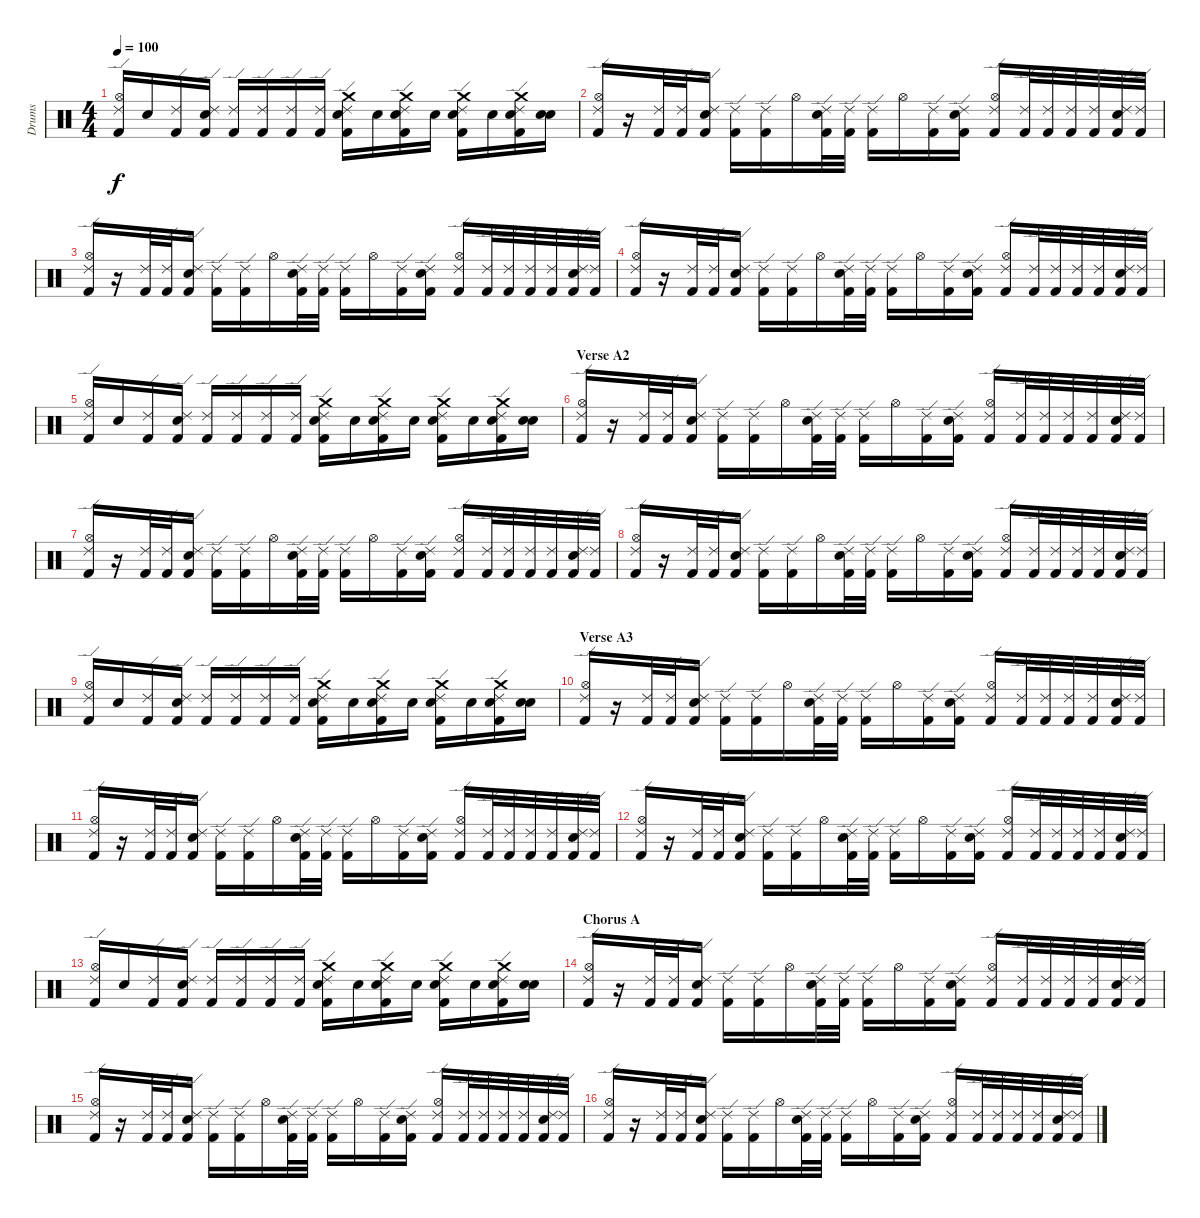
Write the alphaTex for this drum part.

\track ("Drums" "Drums") {instrument percussion}
\staff {score}
\articulation defaults
\ts (4 4)
\tempo 100
\clef neutral
\ks c
("Kick (hit) 2" "Hi-Hat (open)" "Ride (edge) 2").16{dy f} "Snare (hit)".16 ("Kick (hit) 2" "Ride (edge) 2").16 ("Kick (hit) 2" "Electric Snare (hit)" "Ride (edge) 2").16 ("Kick (hit) 2" "Ride (edge) 2").16 ("Kick (hit) 2" "Ride (edge) 2").16 ("Kick (hit) 2" "Ride (edge) 2").16 ("Kick (hit) 2" "Ride (edge) 2").16 ("Kick (hit) 2" "Electric Snare (hit)" "Crash medium (hit)" "Ride (edge) 2").16 "Snare (hit)".16 ("Kick (hit) 2" "Electric Snare (hit)" "Crash medium (hit)" "Ride (edge) 2").16 "Snare (hit)".16 ("Kick (hit) 2" "Electric Snare (hit)" "Crash medium (hit)" "Ride (edge) 2").16 "Snare (hit)".16 ("Kick (hit) 2" "Electric Snare (hit)" "Crash medium (hit)" "Ride (edge) 2").16 ("Snare (hit)" "Snare (hit)").16 |
("Kick (hit) 2" "Hi-Hat (open)" "Ride (edge) 2").16 r.16 ("Kick (hit) 2" "Ride (edge) 2").32 ("Kick (hit) 2" "Ride (edge) 2").32 ("Kick (hit) 2" "Electric Snare (hit)" "Ride (edge) 2").16 ("Kick (hit) 2" "Ride (edge) 2").16 ("Kick (hit) 2" "Ride (edge) 2").16 "Hi-Hat (open)".16 ("Kick (hit) 2" "Electric Snare (hit)" "Ride (edge) 2").32 ("Kick (hit) 2" "Ride (edge) 2").32 ("Kick (hit) 2" "Ride (edge) 2").16 "Hi-Hat (open)".16 ("Kick (hit) 2" "Ride (edge) 2").16 ("Kick (hit) 2" "Electric Snare (hit)" "Ride (edge) 2").16 ("Kick (hit) 2" "Hi-Hat (open)" "Ride (edge) 2").16 ("Kick (hit) 2" "Ride (edge) 2").32 ("Kick (hit) 2" "Ride (edge) 2").32 ("Kick (hit) 2" "Ride (edge) 2").32 ("Kick (hit) 2" "Ride (edge) 2").32 ("Kick (hit) 2" "Electric Snare (hit)" "Ride (edge) 2").32 ("Kick (hit) 2" "Ride (edge) 2").32 |
("Kick (hit) 2" "Hi-Hat (open)" "Ride (edge) 2").16 r.16 ("Kick (hit) 2" "Ride (edge) 2").32 ("Kick (hit) 2" "Ride (edge) 2").32 ("Kick (hit) 2" "Electric Snare (hit)" "Ride (edge) 2").16 ("Kick (hit) 2" "Ride (edge) 2").16 ("Kick (hit) 2" "Ride (edge) 2").16 "Hi-Hat (open)".16 ("Kick (hit) 2" "Electric Snare (hit)" "Ride (edge) 2").32 ("Kick (hit) 2" "Ride (edge) 2").32 ("Kick (hit) 2" "Ride (edge) 2").16 "Hi-Hat (open)".16 ("Kick (hit) 2" "Ride (edge) 2").16 ("Kick (hit) 2" "Electric Snare (hit)" "Ride (edge) 2").16 ("Kick (hit) 2" "Hi-Hat (open)" "Ride (edge) 2").16 ("Kick (hit) 2" "Ride (edge) 2").32 ("Kick (hit) 2" "Ride (edge) 2").32 ("Kick (hit) 2" "Ride (edge) 2").32 ("Kick (hit) 2" "Ride (edge) 2").32 ("Kick (hit) 2" "Electric Snare (hit)" "Ride (edge) 2").32 ("Kick (hit) 2" "Ride (edge) 2").32 |
("Kick (hit) 2" "Hi-Hat (open)" "Ride (edge) 2").16 r.16 ("Kick (hit) 2" "Ride (edge) 2").32 ("Kick (hit) 2" "Ride (edge) 2").32 ("Kick (hit) 2" "Electric Snare (hit)" "Ride (edge) 2").16 ("Kick (hit) 2" "Ride (edge) 2").16 ("Kick (hit) 2" "Ride (edge) 2").16 "Hi-Hat (open)".16 ("Kick (hit) 2" "Electric Snare (hit)" "Ride (edge) 2").32 ("Kick (hit) 2" "Ride (edge) 2").32 ("Kick (hit) 2" "Ride (edge) 2").16 "Hi-Hat (open)".16 ("Kick (hit) 2" "Ride (edge) 2").16 ("Kick (hit) 2" "Electric Snare (hit)" "Ride (edge) 2").16 ("Kick (hit) 2" "Hi-Hat (open)" "Ride (edge) 2").16 ("Kick (hit) 2" "Ride (edge) 2").32 ("Kick (hit) 2" "Ride (edge) 2").32 ("Kick (hit) 2" "Ride (edge) 2").32 ("Kick (hit) 2" "Ride (edge) 2").32 ("Kick (hit) 2" "Electric Snare (hit)" "Ride (edge) 2").32 ("Kick (hit) 2" "Ride (edge) 2").32 |
("Kick (hit) 2" "Hi-Hat (open)" "Ride (edge) 2").16 "Snare (hit)".16 ("Kick (hit) 2" "Ride (edge) 2").16 ("Kick (hit) 2" "Electric Snare (hit)" "Ride (edge) 2").16 ("Kick (hit) 2" "Ride (edge) 2").16 ("Kick (hit) 2" "Ride (edge) 2").16 ("Kick (hit) 2" "Ride (edge) 2").16 ("Kick (hit) 2" "Ride (edge) 2").16 ("Kick (hit) 2" "Electric Snare (hit)" "Crash medium (hit)" "Ride (edge) 2").16 "Snare (hit)".16 ("Kick (hit) 2" "Electric Snare (hit)" "Crash medium (hit)" "Ride (edge) 2").16 "Snare (hit)".16 ("Kick (hit) 2" "Electric Snare (hit)" "Crash medium (hit)" "Ride (edge) 2").16 "Snare (hit)".16 ("Kick (hit) 2" "Electric Snare (hit)" "Crash medium (hit)" "Ride (edge) 2").16 ("Snare (hit)" "Snare (hit)").16 |
\section ("" "Verse A2")
("Kick (hit) 2" "Hi-Hat (open)" "Ride (edge) 2").16 r.16 ("Kick (hit) 2" "Ride (edge) 2").32 ("Kick (hit) 2" "Ride (edge) 2").32 ("Kick (hit) 2" "Electric Snare (hit)" "Ride (edge) 2").16 ("Kick (hit) 2" "Ride (edge) 2").16 ("Kick (hit) 2" "Ride (edge) 2").16 "Hi-Hat (open)".16 ("Kick (hit) 2" "Electric Snare (hit)" "Ride (edge) 2").32 ("Kick (hit) 2" "Ride (edge) 2").32 ("Kick (hit) 2" "Ride (edge) 2").16 "Hi-Hat (open)".16 ("Kick (hit) 2" "Ride (edge) 2").16 ("Kick (hit) 2" "Electric Snare (hit)" "Ride (edge) 2").16 ("Kick (hit) 2" "Hi-Hat (open)" "Ride (edge) 2").16 ("Kick (hit) 2" "Ride (edge) 2").32 ("Kick (hit) 2" "Ride (edge) 2").32 ("Kick (hit) 2" "Ride (edge) 2").32 ("Kick (hit) 2" "Ride (edge) 2").32 ("Kick (hit) 2" "Electric Snare (hit)" "Ride (edge) 2").32 ("Kick (hit) 2" "Ride (edge) 2").32 |
("Kick (hit) 2" "Hi-Hat (open)" "Ride (edge) 2").16 r.16 ("Kick (hit) 2" "Ride (edge) 2").32 ("Kick (hit) 2" "Ride (edge) 2").32 ("Kick (hit) 2" "Electric Snare (hit)" "Ride (edge) 2").16 ("Kick (hit) 2" "Ride (edge) 2").16 ("Kick (hit) 2" "Ride (edge) 2").16 "Hi-Hat (open)".16 ("Kick (hit) 2" "Electric Snare (hit)" "Ride (edge) 2").32 ("Kick (hit) 2" "Ride (edge) 2").32 ("Kick (hit) 2" "Ride (edge) 2").16 "Hi-Hat (open)".16 ("Kick (hit) 2" "Ride (edge) 2").16 ("Kick (hit) 2" "Electric Snare (hit)" "Ride (edge) 2").16 ("Kick (hit) 2" "Hi-Hat (open)" "Ride (edge) 2").16 ("Kick (hit) 2" "Ride (edge) 2").32 ("Kick (hit) 2" "Ride (edge) 2").32 ("Kick (hit) 2" "Ride (edge) 2").32 ("Kick (hit) 2" "Ride (edge) 2").32 ("Kick (hit) 2" "Electric Snare (hit)" "Ride (edge) 2").32 ("Kick (hit) 2" "Ride (edge) 2").32 |
("Kick (hit) 2" "Hi-Hat (open)" "Ride (edge) 2").16 r.16 ("Kick (hit) 2" "Ride (edge) 2").32 ("Kick (hit) 2" "Ride (edge) 2").32 ("Kick (hit) 2" "Electric Snare (hit)" "Ride (edge) 2").16 ("Kick (hit) 2" "Ride (edge) 2").16 ("Kick (hit) 2" "Ride (edge) 2").16 "Hi-Hat (open)".16 ("Kick (hit) 2" "Electric Snare (hit)" "Ride (edge) 2").32 ("Kick (hit) 2" "Ride (edge) 2").32 ("Kick (hit) 2" "Ride (edge) 2").16 "Hi-Hat (open)".16 ("Kick (hit) 2" "Ride (edge) 2").16 ("Kick (hit) 2" "Electric Snare (hit)" "Ride (edge) 2").16 ("Kick (hit) 2" "Hi-Hat (open)" "Ride (edge) 2").16 ("Kick (hit) 2" "Ride (edge) 2").32 ("Kick (hit) 2" "Ride (edge) 2").32 ("Kick (hit) 2" "Ride (edge) 2").32 ("Kick (hit) 2" "Ride (edge) 2").32 ("Kick (hit) 2" "Electric Snare (hit)" "Ride (edge) 2").32 ("Kick (hit) 2" "Ride (edge) 2").32 |
("Kick (hit) 2" "Hi-Hat (open)" "Ride (edge) 2").16 "Snare (hit)".16 ("Kick (hit) 2" "Ride (edge) 2").16 ("Kick (hit) 2" "Electric Snare (hit)" "Ride (edge) 2").16 ("Kick (hit) 2" "Ride (edge) 2").16 ("Kick (hit) 2" "Ride (edge) 2").16 ("Kick (hit) 2" "Ride (edge) 2").16 ("Kick (hit) 2" "Ride (edge) 2").16 ("Kick (hit) 2" "Electric Snare (hit)" "Crash medium (hit)" "Ride (edge) 2").16 "Snare (hit)".16 ("Kick (hit) 2" "Electric Snare (hit)" "Crash medium (hit)" "Ride (edge) 2").16 "Snare (hit)".16 ("Kick (hit) 2" "Electric Snare (hit)" "Crash medium (hit)" "Ride (edge) 2").16 "Snare (hit)".16 ("Kick (hit) 2" "Electric Snare (hit)" "Crash medium (hit)" "Ride (edge) 2").16 ("Snare (hit)" "Snare (hit)").16 |
\section ("" "Verse A3")
("Kick (hit) 2" "Hi-Hat (open)" "Ride (edge) 2").16 r.16 ("Kick (hit) 2" "Ride (edge) 2").32 ("Kick (hit) 2" "Ride (edge) 2").32 ("Kick (hit) 2" "Electric Snare (hit)" "Ride (edge) 2").16 ("Kick (hit) 2" "Ride (edge) 2").16 ("Kick (hit) 2" "Ride (edge) 2").16 "Hi-Hat (open)".16 ("Kick (hit) 2" "Electric Snare (hit)" "Ride (edge) 2").32 ("Kick (hit) 2" "Ride (edge) 2").32 ("Kick (hit) 2" "Ride (edge) 2").16 "Hi-Hat (open)".16 ("Kick (hit) 2" "Ride (edge) 2").16 ("Kick (hit) 2" "Electric Snare (hit)" "Ride (edge) 2").16 ("Kick (hit) 2" "Hi-Hat (open)" "Ride (edge) 2").16 ("Kick (hit) 2" "Ride (edge) 2").32 ("Kick (hit) 2" "Ride (edge) 2").32 ("Kick (hit) 2" "Ride (edge) 2").32 ("Kick (hit) 2" "Ride (edge) 2").32 ("Kick (hit) 2" "Electric Snare (hit)" "Ride (edge) 2").32 ("Kick (hit) 2" "Ride (edge) 2").32 |
("Kick (hit) 2" "Hi-Hat (open)" "Ride (edge) 2").16 r.16 ("Kick (hit) 2" "Ride (edge) 2").32 ("Kick (hit) 2" "Ride (edge) 2").32 ("Kick (hit) 2" "Electric Snare (hit)" "Ride (edge) 2").16 ("Kick (hit) 2" "Ride (edge) 2").16 ("Kick (hit) 2" "Ride (edge) 2").16 "Hi-Hat (open)".16 ("Kick (hit) 2" "Electric Snare (hit)" "Ride (edge) 2").32 ("Kick (hit) 2" "Ride (edge) 2").32 ("Kick (hit) 2" "Ride (edge) 2").16 "Hi-Hat (open)".16 ("Kick (hit) 2" "Ride (edge) 2").16 ("Kick (hit) 2" "Electric Snare (hit)" "Ride (edge) 2").16 ("Kick (hit) 2" "Hi-Hat (open)" "Ride (edge) 2").16 ("Kick (hit) 2" "Ride (edge) 2").32 ("Kick (hit) 2" "Ride (edge) 2").32 ("Kick (hit) 2" "Ride (edge) 2").32 ("Kick (hit) 2" "Ride (edge) 2").32 ("Kick (hit) 2" "Electric Snare (hit)" "Ride (edge) 2").32 ("Kick (hit) 2" "Ride (edge) 2").32 |
("Kick (hit) 2" "Hi-Hat (open)" "Ride (edge) 2").16 r.16 ("Kick (hit) 2" "Ride (edge) 2").32 ("Kick (hit) 2" "Ride (edge) 2").32 ("Kick (hit) 2" "Electric Snare (hit)" "Ride (edge) 2").16 ("Kick (hit) 2" "Ride (edge) 2").16 ("Kick (hit) 2" "Ride (edge) 2").16 "Hi-Hat (open)".16 ("Kick (hit) 2" "Electric Snare (hit)" "Ride (edge) 2").32 ("Kick (hit) 2" "Ride (edge) 2").32 ("Kick (hit) 2" "Ride (edge) 2").16 "Hi-Hat (open)".16 ("Kick (hit) 2" "Ride (edge) 2").16 ("Kick (hit) 2" "Electric Snare (hit)" "Ride (edge) 2").16 ("Kick (hit) 2" "Hi-Hat (open)" "Ride (edge) 2").16 ("Kick (hit) 2" "Ride (edge) 2").32 ("Kick (hit) 2" "Ride (edge) 2").32 ("Kick (hit) 2" "Ride (edge) 2").32 ("Kick (hit) 2" "Ride (edge) 2").32 ("Kick (hit) 2" "Electric Snare (hit)" "Ride (edge) 2").32 ("Kick (hit) 2" "Ride (edge) 2").32 |
("Kick (hit) 2" "Hi-Hat (open)" "Ride (edge) 2").16 "Snare (hit)".16 ("Kick (hit) 2" "Ride (edge) 2").16 ("Kick (hit) 2" "Electric Snare (hit)" "Ride (edge) 2").16 ("Kick (hit) 2" "Ride (edge) 2").16 ("Kick (hit) 2" "Ride (edge) 2").16 ("Kick (hit) 2" "Ride (edge) 2").16 ("Kick (hit) 2" "Ride (edge) 2").16 ("Kick (hit) 2" "Electric Snare (hit)" "Crash medium (hit)" "Ride (edge) 2").16 "Snare (hit)".16 ("Kick (hit) 2" "Electric Snare (hit)" "Crash medium (hit)" "Ride (edge) 2").16 "Snare (hit)".16 ("Kick (hit) 2" "Electric Snare (hit)" "Crash medium (hit)" "Ride (edge) 2").16 "Snare (hit)".16 ("Kick (hit) 2" "Electric Snare (hit)" "Crash medium (hit)" "Ride (edge) 2").16 ("Snare (hit)" "Snare (hit)").16 |
\section ("" "Chorus A")
("Kick (hit) 2" "Hi-Hat (open)" "Ride (edge) 2").16 r.16 ("Kick (hit) 2" "Ride (edge) 2").32 ("Kick (hit) 2" "Ride (edge) 2").32 ("Kick (hit) 2" "Electric Snare (hit)" "Ride (edge) 2").16 ("Kick (hit) 2" "Ride (edge) 2").16 ("Kick (hit) 2" "Ride (edge) 2").16 "Hi-Hat (open)".16 ("Kick (hit) 2" "Electric Snare (hit)" "Ride (edge) 2").32 ("Kick (hit) 2" "Ride (edge) 2").32 ("Kick (hit) 2" "Ride (edge) 2").16 "Hi-Hat (open)".16 ("Kick (hit) 2" "Ride (edge) 2").16 ("Kick (hit) 2" "Electric Snare (hit)" "Ride (edge) 2").16 ("Kick (hit) 2" "Hi-Hat (open)" "Ride (edge) 2").16 ("Kick (hit) 2" "Ride (edge) 2").32 ("Kick (hit) 2" "Ride (edge) 2").32 ("Kick (hit) 2" "Ride (edge) 2").32 ("Kick (hit) 2" "Ride (edge) 2").32 ("Kick (hit) 2" "Electric Snare (hit)" "Ride (edge) 2").32 ("Kick (hit) 2" "Ride (edge) 2").32 |
("Kick (hit) 2" "Hi-Hat (open)" "Ride (edge) 2").16 r.16 ("Kick (hit) 2" "Ride (edge) 2").32 ("Kick (hit) 2" "Ride (edge) 2").32 ("Kick (hit) 2" "Electric Snare (hit)" "Ride (edge) 2").16 ("Kick (hit) 2" "Ride (edge) 2").16 ("Kick (hit) 2" "Ride (edge) 2").16 "Hi-Hat (open)".16 ("Kick (hit) 2" "Electric Snare (hit)" "Ride (edge) 2").32 ("Kick (hit) 2" "Ride (edge) 2").32 ("Kick (hit) 2" "Ride (edge) 2").16 "Hi-Hat (open)".16 ("Kick (hit) 2" "Ride (edge) 2").16 ("Kick (hit) 2" "Electric Snare (hit)" "Ride (edge) 2").16 ("Kick (hit) 2" "Hi-Hat (open)" "Ride (edge) 2").16 ("Kick (hit) 2" "Ride (edge) 2").32 ("Kick (hit) 2" "Ride (edge) 2").32 ("Kick (hit) 2" "Ride (edge) 2").32 ("Kick (hit) 2" "Ride (edge) 2").32 ("Kick (hit) 2" "Electric Snare (hit)" "Ride (edge) 2").32 ("Kick (hit) 2" "Ride (edge) 2").32 |
("Kick (hit) 2" "Hi-Hat (open)" "Ride (edge) 2").16 r.16 ("Kick (hit) 2" "Ride (edge) 2").32 ("Kick (hit) 2" "Ride (edge) 2").32 ("Kick (hit) 2" "Electric Snare (hit)" "Ride (edge) 2").16 ("Kick (hit) 2" "Ride (edge) 2").16 ("Kick (hit) 2" "Ride (edge) 2").16 "Hi-Hat (open)".16 ("Kick (hit) 2" "Electric Snare (hit)" "Ride (edge) 2").32 ("Kick (hit) 2" "Ride (edge) 2").32 ("Kick (hit) 2" "Ride (edge) 2").16 "Hi-Hat (open)".16 ("Kick (hit) 2" "Ride (edge) 2").16 ("Kick (hit) 2" "Electric Snare (hit)" "Ride (edge) 2").16 ("Kick (hit) 2" "Hi-Hat (open)" "Ride (edge) 2").16 ("Kick (hit) 2" "Ride (edge) 2").32 ("Kick (hit) 2" "Ride (edge) 2").32 ("Kick (hit) 2" "Ride (edge) 2").32 ("Kick (hit) 2" "Ride (edge) 2").32 ("Kick (hit) 2" "Electric Snare (hit)" "Ride (edge) 2").32 ("Kick (hit) 2" "Ride (edge) 2").32
